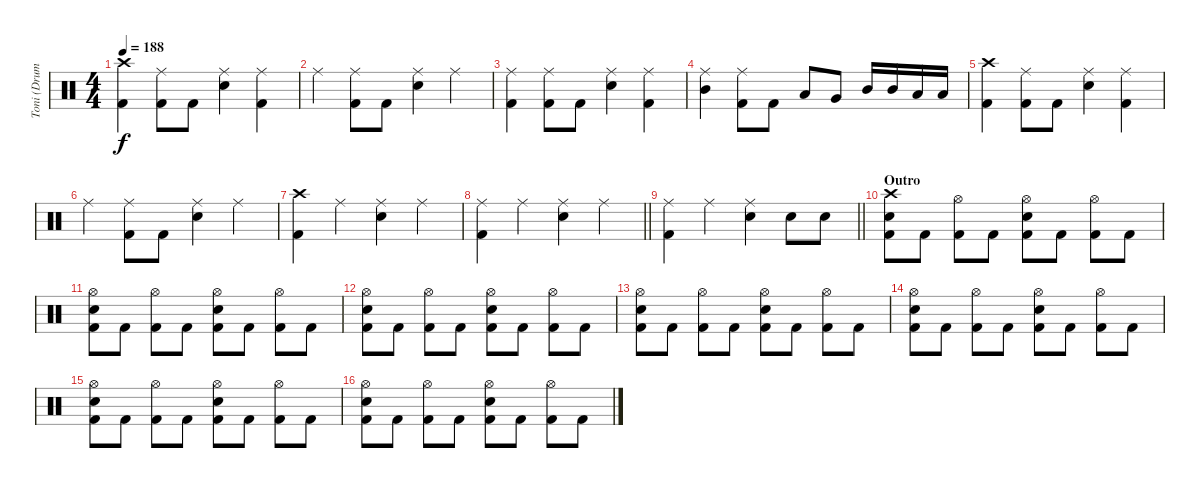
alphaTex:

\track ("Toni (Drums)" "Toni (Drum") {instrument percussion}
\staff {score}
\articulation defaults
\ts (4 4)
\tempo 188
\clef neutral
\ks c
("Crash high (hit)" "Kick (hit) 2").4{dy f} ("Ride (middle)" "Kick (hit) 2").8 "Kick (hit) 2".8 ("Ride (middle)" "Electric Snare (hit)").4 ("Ride (middle)" "Kick (hit) 2").4 |
"Ride (middle)".4 ("Ride (middle)" "Kick (hit) 2").8 "Kick (hit) 2".8 ("Ride (middle)" "Electric Snare (hit)").4 "Ride (middle)".4 |
("Ride (middle)" "Kick (hit) 2").4 ("Ride (middle)" "Kick (hit) 2").8 "Kick (hit) 2".8 ("Ride (middle)" "Electric Snare (hit)").4 ("Ride (middle)" "Kick (hit) 2").4 |
("Ride (middle)" "Mid Tom (hit)").4 ("Ride (middle)" "Kick (hit) 2").8 "Kick (hit) 2".8 "Low Tom (hit)".8 "Very Low Tom (hit)".8 "Mid Tom (hit)".16 "Mid Tom (hit)".16 "Low Tom (hit)".16 "Low Tom (hit)".16 |
("Crash high (hit)" "Kick (hit) 2").4 ("Ride (middle)" "Kick (hit) 2").8 "Kick (hit) 2".8 ("Ride (middle)" "Electric Snare (hit)").4 ("Ride (middle)" "Kick (hit) 2").4 |
"Ride (middle)".4 ("Ride (middle)" "Kick (hit) 2").8 "Kick (hit) 2".8 ("Ride (middle)" "Electric Snare (hit)").4 "Ride (middle)".4 |
("Crash high (hit)" "Kick (hit) 2").4 "Ride (middle)".4 ("Ride (middle)" "Electric Snare (hit)").4 "Ride (middle)".4 |
\barLineRight lightlight
("Ride (middle)" "Kick (hit) 2").4 "Ride (middle)".4 ("Ride (middle)" "Electric Snare (hit)").4 "Ride (middle)".4 |
\barLineRight lightlight
("Ride (middle)" "Kick (hit) 2").4 "Ride (middle)".4 ("Ride (middle)" "Electric Snare (hit)").4 "Electric Snare (hit)".8 "Electric Snare (hit)".8 |
\section ("" "Outro")
("Crash high (hit)" "Electric Snare (hit)" "Kick (hit) 2").8 "Kick (hit) 2".8 ("Hi-Hat (open)" "Kick (hit) 2").8 "Kick (hit) 2".8 ("Hi-Hat (open)" "Electric Snare (hit)" "Kick (hit) 2").8 "Kick (hit) 2".8 ("Hi-Hat (open)" "Kick (hit) 2").8 "Kick (hit) 2".8 |
("Hi-Hat (open)" "Electric Snare (hit)" "Kick (hit) 2").8 "Kick (hit) 2".8 ("Hi-Hat (open)" "Kick (hit) 2").8 "Kick (hit) 2".8 ("Hi-Hat (open)" "Electric Snare (hit)" "Kick (hit) 2").8 "Kick (hit) 2".8 ("Hi-Hat (open)" "Kick (hit) 2").8 "Kick (hit) 2".8 |
("Hi-Hat (open)" "Electric Snare (hit)" "Kick (hit) 2").8 "Kick (hit) 2".8 ("Hi-Hat (open)" "Kick (hit) 2").8 "Kick (hit) 2".8 ("Hi-Hat (open)" "Electric Snare (hit)" "Kick (hit) 2").8 "Kick (hit) 2".8 ("Hi-Hat (open)" "Kick (hit) 2").8 "Kick (hit) 2".8 |
("Hi-Hat (open)" "Electric Snare (hit)" "Kick (hit) 2").8 "Kick (hit) 2".8 ("Hi-Hat (open)" "Kick (hit) 2").8 "Kick (hit) 2".8 ("Hi-Hat (open)" "Electric Snare (hit)" "Kick (hit) 2").8 "Kick (hit) 2".8 ("Hi-Hat (open)" "Kick (hit) 2").8 "Kick (hit) 2".8 |
("Hi-Hat (open)" "Electric Snare (hit)" "Kick (hit) 2").8 "Kick (hit) 2".8 ("Hi-Hat (open)" "Kick (hit) 2").8 "Kick (hit) 2".8 ("Hi-Hat (open)" "Electric Snare (hit)" "Kick (hit) 2").8 "Kick (hit) 2".8 ("Hi-Hat (open)" "Kick (hit) 2").8 "Kick (hit) 2".8 |
("Hi-Hat (open)" "Electric Snare (hit)" "Kick (hit) 2").8 "Kick (hit) 2".8 ("Hi-Hat (open)" "Kick (hit) 2").8 "Kick (hit) 2".8 ("Hi-Hat (open)" "Electric Snare (hit)" "Kick (hit) 2").8 "Kick (hit) 2".8 ("Hi-Hat (open)" "Kick (hit) 2").8 "Kick (hit) 2".8 |
("Hi-Hat (open)" "Electric Snare (hit)" "Kick (hit) 2").8 "Kick (hit) 2".8 ("Hi-Hat (open)" "Kick (hit) 2").8 "Kick (hit) 2".8 ("Hi-Hat (open)" "Electric Snare (hit)" "Kick (hit) 2").8 "Kick (hit) 2".8 ("Hi-Hat (open)" "Kick (hit) 2").8 "Kick (hit) 2".8
